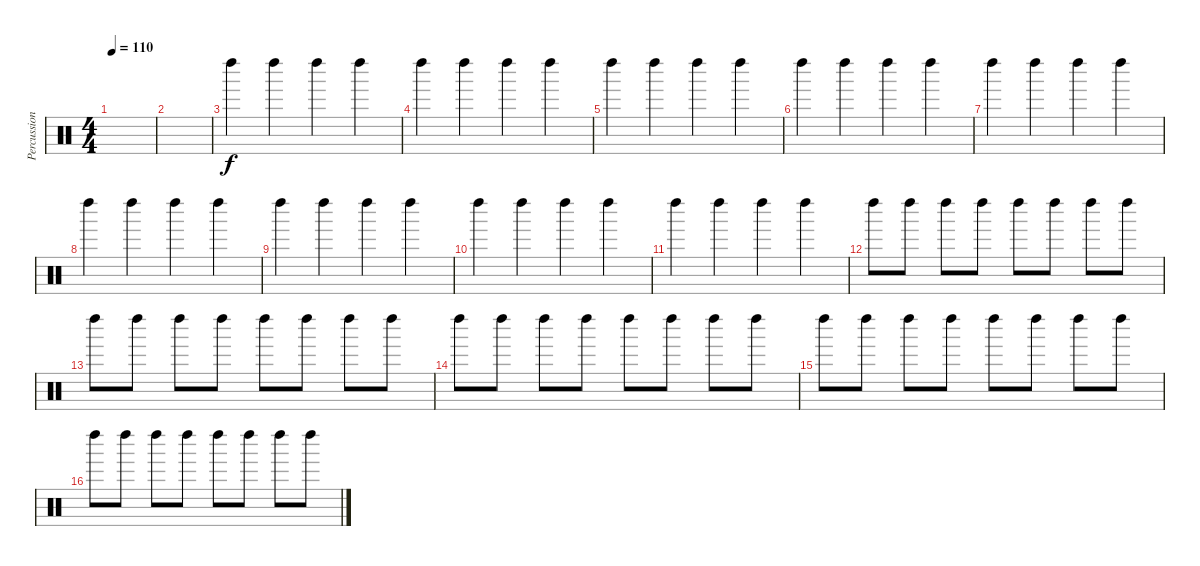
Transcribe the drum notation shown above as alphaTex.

\track ("Percussions" "Percussion") {instrument percussion}
\staff {score}
\articulation defaults
\ts (4 4)
\tempo 110
\clef neutral
\ks c
|
|
"Left Maraca (hit)".4 "Left Maraca (hit)".4 "Left Maraca (hit)".4 "Left Maraca (hit)".4 |
"Left Maraca (hit)".4 "Left Maraca (hit)".4 "Left Maraca (hit)".4 "Left Maraca (hit)".4 |
"Left Maraca (hit)".4 "Left Maraca (hit)".4 "Left Maraca (hit)".4 "Left Maraca (hit)".4 |
"Left Maraca (hit)".4 "Left Maraca (hit)".4 "Left Maraca (hit)".4 "Left Maraca (hit)".4 |
"Left Maraca (hit)".4 "Left Maraca (hit)".4 "Left Maraca (hit)".4 "Left Maraca (hit)".4 |
"Left Maraca (hit)".4 "Left Maraca (hit)".4 "Left Maraca (hit)".4 "Left Maraca (hit)".4 |
"Left Maraca (hit)".4 "Left Maraca (hit)".4 "Left Maraca (hit)".4 "Left Maraca (hit)".4 |
"Left Maraca (hit)".4 "Left Maraca (hit)".4 "Left Maraca (hit)".4 "Left Maraca (hit)".4 |
"Left Maraca (hit)".4 "Left Maraca (hit)".4 "Left Maraca (hit)".4 "Left Maraca (hit)".4 |
"Left Maraca (hit)".8 "Left Maraca (hit)".8 "Left Maraca (hit)".8 "Left Maraca (hit)".8 "Left Maraca (hit)".8 "Left Maraca (hit)".8 "Left Maraca (hit)".8 "Left Maraca (hit)".8 |
"Left Maraca (hit)".8 "Left Maraca (hit)".8 "Left Maraca (hit)".8 "Left Maraca (hit)".8 "Left Maraca (hit)".8 "Left Maraca (hit)".8 "Left Maraca (hit)".8 "Left Maraca (hit)".8 |
"Left Maraca (hit)".8 "Left Maraca (hit)".8 "Left Maraca (hit)".8 "Left Maraca (hit)".8 "Left Maraca (hit)".8 "Left Maraca (hit)".8 "Left Maraca (hit)".8 "Left Maraca (hit)".8 |
"Left Maraca (hit)".8 "Left Maraca (hit)".8 "Left Maraca (hit)".8 "Left Maraca (hit)".8 "Left Maraca (hit)".8 "Left Maraca (hit)".8 "Left Maraca (hit)".8 "Left Maraca (hit)".8 |
"Left Maraca (hit)".8 "Left Maraca (hit)".8 "Left Maraca (hit)".8 "Left Maraca (hit)".8 "Left Maraca (hit)".8 "Left Maraca (hit)".8 "Left Maraca (hit)".8 "Left Maraca (hit)".8
